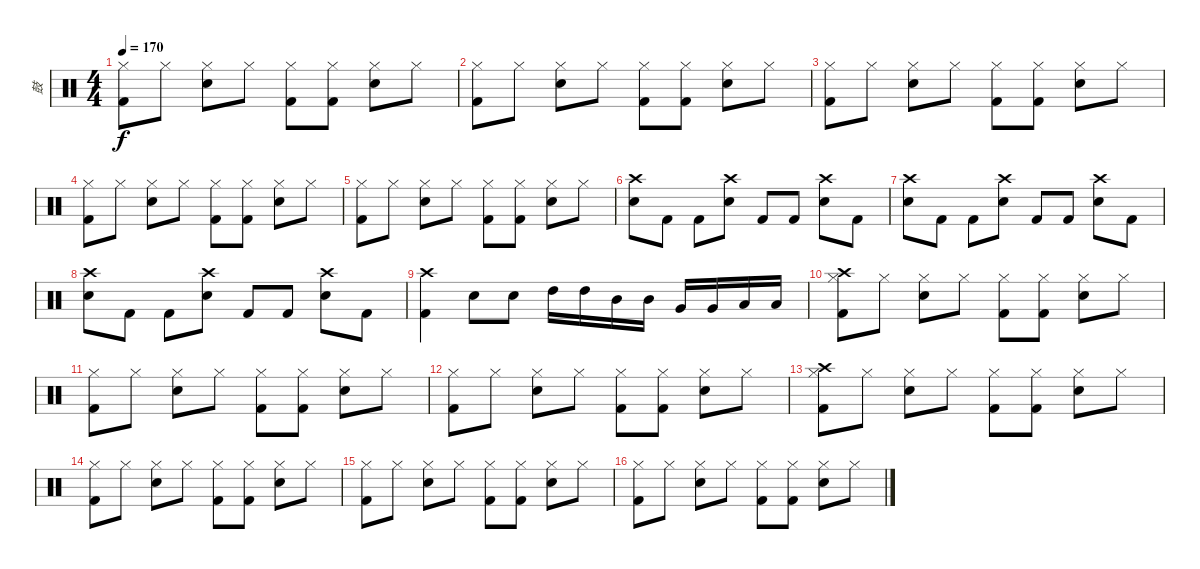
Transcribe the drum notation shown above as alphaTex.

\track ("鼓" "鼓") {instrument percussion}
\staff {score}
\articulation defaults
\ts (4 4)
\tempo 170
\clef neutral
\ks c
("Hi-Hat (closed)" "Kick (hit) 2").8{dy f} "Hi-Hat (closed)".8 ("Hi-Hat (closed)" "Electric Snare (hit)").8 "Hi-Hat (closed)".8 ("Hi-Hat (closed)" "Kick (hit) 2").8 ("Hi-Hat (closed)" "Kick (hit) 2").8 ("Hi-Hat (closed)" "Electric Snare (hit)").8 "Hi-Hat (closed)".8 |
("Hi-Hat (closed)" "Kick (hit) 2").8 "Hi-Hat (closed)".8 ("Hi-Hat (closed)" "Electric Snare (hit)").8 "Hi-Hat (closed)".8 ("Hi-Hat (closed)" "Kick (hit) 2").8 ("Hi-Hat (closed)" "Kick (hit) 2").8 ("Hi-Hat (closed)" "Electric Snare (hit)").8 "Hi-Hat (closed)".8 |
("Hi-Hat (closed)" "Kick (hit) 2").8 "Hi-Hat (closed)".8 ("Hi-Hat (closed)" "Electric Snare (hit)").8 "Hi-Hat (closed)".8 ("Hi-Hat (closed)" "Kick (hit) 2").8 ("Hi-Hat (closed)" "Kick (hit) 2").8 ("Hi-Hat (closed)" "Electric Snare (hit)").8 "Hi-Hat (closed)".8 |
("Hi-Hat (closed)" "Kick (hit) 2").8 "Hi-Hat (closed)".8 ("Hi-Hat (closed)" "Electric Snare (hit)").8 "Hi-Hat (closed)".8 ("Hi-Hat (closed)" "Kick (hit) 2").8 ("Hi-Hat (closed)" "Kick (hit) 2").8 ("Hi-Hat (closed)" "Electric Snare (hit)").8 "Hi-Hat (closed)".8 |
("Hi-Hat (closed)" "Kick (hit) 2").8 "Hi-Hat (closed)".8 ("Hi-Hat (closed)" "Electric Snare (hit)").8 "Hi-Hat (closed)".8 ("Hi-Hat (closed)" "Kick (hit) 2").8 ("Hi-Hat (closed)" "Kick (hit) 2").8 ("Hi-Hat (closed)" "Electric Snare (hit)").8 "Hi-Hat (closed)".8 |
("Crash high (hit)" "Electric Snare (hit)").8 "Kick (hit) 2".8 "Kick (hit) 2".8 ("Crash high (hit)" "Electric Snare (hit)").8 "Kick (hit) 2".8 "Kick (hit) 2".8 ("Crash high (hit)" "Electric Snare (hit)").8 "Kick (hit) 2".8 |
("Crash high (hit)" "Electric Snare (hit)").8 "Kick (hit) 2".8 "Kick (hit) 2".8 ("Crash high (hit)" "Electric Snare (hit)").8 "Kick (hit) 2".8 "Kick (hit) 2".8 ("Crash high (hit)" "Electric Snare (hit)").8 "Kick (hit) 2".8 |
("Crash high (hit)" "Electric Snare (hit)").8 "Kick (hit) 2".8 "Kick (hit) 2".8 ("Crash high (hit)" "Electric Snare (hit)").8 "Kick (hit) 2".8 "Kick (hit) 2".8 ("Crash high (hit)" "Electric Snare (hit)").8 "Kick (hit) 2".8 |
("Crash high (hit)" "Kick (hit) 2").4 "Electric Snare (hit)".8 "Electric Snare (hit)".8 "High Tom (hit)".16 "High Tom (hit)".16 "Mid Tom (hit)".16 "Mid Tom (hit)".16 "Very Low Tom (hit)".16 "Very Low Tom (hit)".16 "Low Floor Tom (hit)".16 "Low Floor Tom (hit)".16 |
("Crash high (hit)" "Hi-Hat (closed)" "Kick (hit) 2").8 "Hi-Hat (closed)".8 ("Hi-Hat (closed)" "Electric Snare (hit)").8 "Hi-Hat (closed)".8 ("Hi-Hat (closed)" "Kick (hit) 2").8 ("Hi-Hat (closed)" "Kick (hit) 2").8 ("Hi-Hat (closed)" "Electric Snare (hit)").8 "Hi-Hat (closed)".8 |
("Hi-Hat (closed)" "Kick (hit) 2").8 "Hi-Hat (closed)".8 ("Hi-Hat (closed)" "Electric Snare (hit)").8 "Hi-Hat (closed)".8 ("Hi-Hat (closed)" "Kick (hit) 2").8 ("Hi-Hat (closed)" "Kick (hit) 2").8 ("Hi-Hat (closed)" "Electric Snare (hit)").8 "Hi-Hat (closed)".8 |
("Hi-Hat (closed)" "Kick (hit) 2").8 "Hi-Hat (closed)".8 ("Hi-Hat (closed)" "Electric Snare (hit)").8 "Hi-Hat (closed)".8 ("Hi-Hat (closed)" "Kick (hit) 2").8 ("Hi-Hat (closed)" "Kick (hit) 2").8 ("Hi-Hat (closed)" "Electric Snare (hit)").8 "Hi-Hat (closed)".8 |
("Crash high (hit)" "Hi-Hat (closed)" "Kick (hit) 2").8 "Hi-Hat (closed)".8 ("Hi-Hat (closed)" "Electric Snare (hit)").8 "Hi-Hat (closed)".8 ("Hi-Hat (closed)" "Kick (hit) 2").8 ("Hi-Hat (closed)" "Kick (hit) 2").8 ("Hi-Hat (closed)" "Electric Snare (hit)").8 "Hi-Hat (closed)".8 |
("Hi-Hat (closed)" "Kick (hit) 2").8 "Hi-Hat (closed)".8 ("Hi-Hat (closed)" "Electric Snare (hit)").8 "Hi-Hat (closed)".8 ("Hi-Hat (closed)" "Kick (hit) 2").8 ("Hi-Hat (closed)" "Kick (hit) 2").8 ("Hi-Hat (closed)" "Electric Snare (hit)").8 "Hi-Hat (closed)".8 |
("Hi-Hat (closed)" "Kick (hit) 2").8 "Hi-Hat (closed)".8 ("Hi-Hat (closed)" "Electric Snare (hit)").8 "Hi-Hat (closed)".8 ("Hi-Hat (closed)" "Kick (hit) 2").8 ("Hi-Hat (closed)" "Kick (hit) 2").8 ("Hi-Hat (closed)" "Electric Snare (hit)").8 "Hi-Hat (closed)".8 |
("Hi-Hat (closed)" "Kick (hit) 2").8 "Hi-Hat (closed)".8 ("Hi-Hat (closed)" "Electric Snare (hit)").8 "Hi-Hat (closed)".8 ("Hi-Hat (closed)" "Kick (hit) 2").8 ("Hi-Hat (closed)" "Kick (hit) 2").8 ("Hi-Hat (closed)" "Electric Snare (hit)").8 "Hi-Hat (closed)".8
